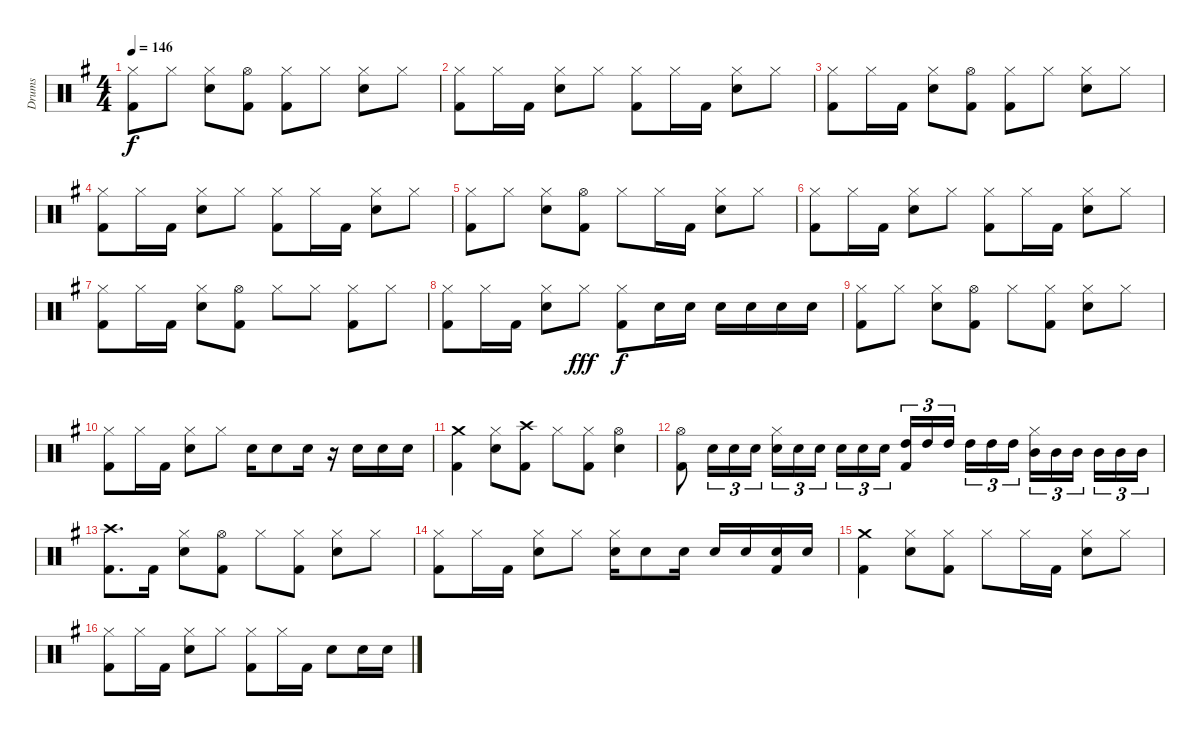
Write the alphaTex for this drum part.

\track ("Drums" "Drums") {instrument percussion}
\staff {score}
\articulation defaults
\ts (4 4)
\tempo 146
\clef neutral
\ks g
("Kick (hit) 2" "Hi-Hat (closed)").8{dy f} "Hi-Hat (closed)".8 ("Snare (hit) 2" "Hi-Hat (closed)").8 ("Kick (hit) 2" "Hi-Hat (open)").8 ("Kick (hit) 2" "Hi-Hat (closed)").8 "Hi-Hat (closed)".8 ("Snare (hit) 2" "Hi-Hat (closed)").8 "Hi-Hat (closed)".8 |
("Kick (hit) 2" "Hi-Hat (closed)").8 "Hi-Hat (closed)".16 "Kick (hit) 2".16 ("Snare (hit) 2" "Hi-Hat (closed)").8 "Hi-Hat (closed)".8 ("Kick (hit) 2" "Hi-Hat (closed)").8 "Hi-Hat (closed)".16 "Kick (hit) 2".16 ("Snare (hit) 2" "Hi-Hat (closed)").8 "Hi-Hat (closed)".8 |
("Kick (hit) 2" "Hi-Hat (closed)").8 "Hi-Hat (closed)".16 "Kick (hit) 2".16 ("Snare (hit) 2" "Hi-Hat (closed)").8 ("Kick (hit) 2" "Hi-Hat (open)").8 ("Kick (hit) 2" "Hi-Hat (closed)").8 "Hi-Hat (closed)".8 ("Snare (hit) 2" "Hi-Hat (closed)").8 "Hi-Hat (closed)".8 |
("Kick (hit) 2" "Hi-Hat (closed)").8 "Hi-Hat (closed)".16 "Kick (hit) 2".16 ("Snare (hit) 2" "Hi-Hat (closed)").8 "Hi-Hat (closed)".8 ("Kick (hit) 2" "Hi-Hat (closed)").8 "Hi-Hat (closed)".16 "Kick (hit) 2".16 ("Snare (hit) 2" "Hi-Hat (closed)").8 "Hi-Hat (closed)".8 |
("Kick (hit) 2" "Hi-Hat (closed)").8 "Hi-Hat (closed)".8 ("Snare (hit) 2" "Hi-Hat (closed)").8 ("Kick (hit) 2" "Hi-Hat (open)").8 "Hi-Hat (closed)".8 "Hi-Hat (closed)".16 "Kick (hit) 2".16 ("Snare (hit) 2" "Hi-Hat (closed)").8 "Hi-Hat (closed)".8 |
("Kick (hit) 2" "Hi-Hat (closed)").8 "Hi-Hat (closed)".16 "Kick (hit) 2".16 ("Snare (hit) 2" "Hi-Hat (closed)").8 "Hi-Hat (closed)".8 ("Kick (hit) 2" "Hi-Hat (closed)").8 "Hi-Hat (closed)".16 "Kick (hit) 2".16 ("Snare (hit) 2" "Hi-Hat (closed)").8 "Hi-Hat (closed)".8 |
("Kick (hit) 2" "Hi-Hat (closed)").8 "Hi-Hat (closed)".16 "Kick (hit) 2".16 ("Snare (hit) 2" "Hi-Hat (closed)").8 ("Kick (hit) 2" "Hi-Hat (open)").8 "Hi-Hat (closed)".8 "Hi-Hat (closed)".8 ("Kick (hit) 2" "Hi-Hat (closed)").8 "Hi-Hat (closed)".8 |
("Kick (hit) 2" "Hi-Hat (closed)").8 "Hi-Hat (closed)".16 "Kick (hit) 2".16 ("Snare (hit) 2" "Hi-Hat (closed)").8 "Hi-Hat (closed)".8{dy fff} ("Kick (hit) 2" "Hi-Hat (closed)").8{dy f} "Snare (hit) 2".16 "Snare (hit) 2".16 "Snare (hit) 2".16 "Snare (hit) 2".16 "Snare (hit) 2".16 "Snare (hit) 2".16 |
("Kick (hit) 2" "Hi-Hat (closed)").8 "Hi-Hat (closed)".8 ("Snare (hit) 2" "Hi-Hat (closed)").8 ("Kick (hit) 2" "Hi-Hat (open)").8 "Hi-Hat (closed)".8 ("Kick (hit) 2" "Hi-Hat (closed)").8 ("Snare (hit) 2" "Hi-Hat (closed)").8 "Hi-Hat (closed)".8 |
("Kick (hit) 2" "Hi-Hat (closed)").8 "Hi-Hat (closed)".16 "Kick (hit) 2".16 ("Snare (hit) 2" "Hi-Hat (closed)").8 "Hi-Hat (closed)".8 "Snare (hit) 2".16 "Snare (hit) 2".8 "Snare (hit) 2".16 r.16 "Snare (hit) 2".16 "Snare (hit) 2".16 "Snare (hit) 2".16 |
("Kick (hit) 2" "Crash medium (hit)").4 ("Snare (hit) 2" "Hi-Hat (closed)").8 ("Kick (hit) 2" "Crash high (hit)").8 "Hi-Hat (closed)".8 ("Kick (hit) 2" "Hi-Hat (closed)").8 ("Snare (hit) 2" "Hi-Hat (open)").4 |
("Kick (hit) 2" "Hi-Hat (open)").8 "Snare (hit) 2".16{tu (3 2)} "Snare (hit) 2".16{tu (3 2)} "Snare (hit) 2".16{tu (3 2)} ("Snare (hit) 2" "Hi-Hat (closed)").16{tu (3 2)} "Snare (hit) 2".16{tu (3 2)} "Snare (hit) 2".16{tu (3 2)} "Snare (hit) 2".16{tu (3 2)} "Snare (hit) 2".16{tu (3 2)} "Snare (hit) 2".16{tu (3 2)} ("Kick (hit) 2" "High Tom (hit)").16{tu (3 2)} "High Tom (hit)".16{tu (3 2)} "High Tom (hit)".16{tu (3 2)} "High Tom (hit)".16{tu (3 2)} "High Tom (hit)".16{tu (3 2)} "High Tom (hit)".16{tu (3 2)} ("Hi-Hat (closed)" "Mid Tom (hit)").16{tu (3 2)} "Mid Tom (hit)".16{tu (3 2)} "Mid Tom (hit)".16{tu (3 2)} "Mid Tom (hit)".16{tu (3 2)} "Mid Tom (hit)".16{tu (3 2)} "Mid Tom (hit)".16{tu (3 2)} |
("Kick (hit) 2" "Crash high (hit)").8{d} "Kick (hit) 2".16 ("Snare (hit) 2" "Hi-Hat (closed)").8 ("Kick (hit) 2" "Hi-Hat (open)").8 "Hi-Hat (closed)".8 ("Kick (hit) 2" "Hi-Hat (closed)").8 ("Snare (hit) 2" "Hi-Hat (closed)").8 "Hi-Hat (closed)".8 |
("Kick (hit) 2" "Hi-Hat (closed)").8 "Hi-Hat (closed)".16 "Kick (hit) 2".16 ("Snare (hit) 2" "Hi-Hat (closed)").8 "Hi-Hat (closed)".8 ("Snare (hit) 2" "Hi-Hat (closed)").16 "Snare (hit) 2".8 "Snare (hit) 2".16 "Snare (hit) 2".16 "Snare (hit) 2".16 ("Kick (hit) 2" "Snare (hit) 2").16 "Snare (hit) 2".16 |
("Kick (hit) 2" "Crash medium (hit)").4 ("Snare (hit) 2" "Hi-Hat (closed)").8 ("Kick (hit) 2" "Hi-Hat (closed)").8 "Hi-Hat (closed)".8 "Hi-Hat (closed)".16 "Kick (hit) 2".16 ("Snare (hit) 2" "Hi-Hat (closed)").8 "Hi-Hat (closed)".8 |
("Kick (hit) 2" "Hi-Hat (closed)").8 "Hi-Hat (closed)".16 "Kick (hit) 2".16 ("Snare (hit) 2" "Hi-Hat (closed)").8 "Hi-Hat (closed)".8 ("Kick (hit) 2" "Hi-Hat (closed)").8 "Hi-Hat (closed)".16 "Kick (hit) 2".16 "Snare (hit) 2".8 "Snare (hit) 2".16 "Snare (hit) 2".16
